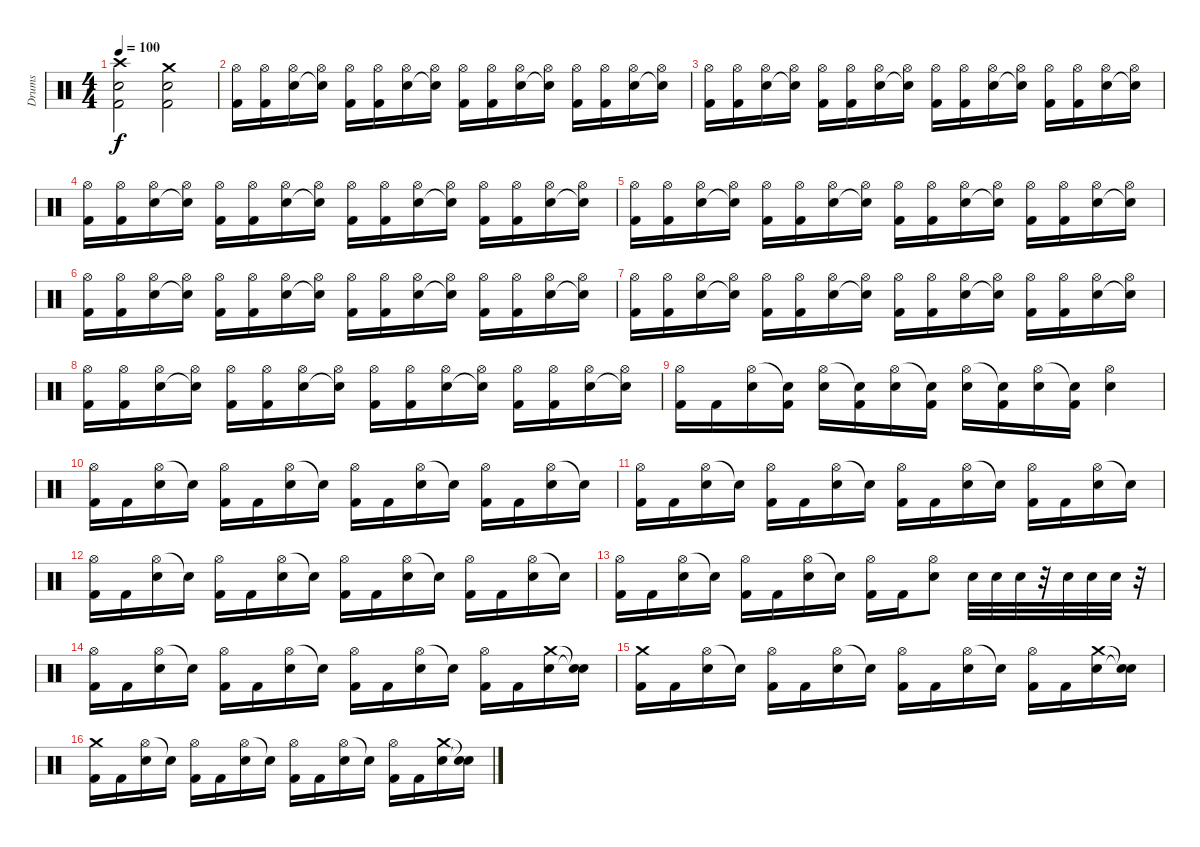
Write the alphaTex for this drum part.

\track ("Drums" "Drums") {instrument percussion}
\staff {score}
\articulation defaults
\ts (4 4)
\tempo 100
\clef neutral
\ks c
("Crash high (hit)" "Electric Snare (hit)" "Kick (hit) 2").2{dy f} ("Crash medium (hit)" "Electric Snare (hit)" "Kick (hit) 2").2 |
("Hi-Hat (open)" "Kick (hit) 2").16 ("Hi-Hat (open)" "Kick (hit) 2").16 ("Hi-Hat (open)" "Electric Snare (hit)").16 ("Hi-Hat (open)" "Snare (hit)"{t}).16 ("Hi-Hat (open)" "Kick (hit) 2").16 ("Hi-Hat (open)" "Kick (hit) 2").16 ("Hi-Hat (open)" "Electric Snare (hit)").16 ("Hi-Hat (open)" "Snare (hit)"{t}).16 ("Hi-Hat (open)" "Kick (hit) 2").16 ("Hi-Hat (open)" "Kick (hit) 2").16 ("Hi-Hat (open)" "Electric Snare (hit)").16 ("Hi-Hat (open)" "Snare (hit)"{t}).16 ("Hi-Hat (open)" "Kick (hit) 2").16 ("Hi-Hat (open)" "Kick (hit) 2").16 ("Hi-Hat (open)" "Electric Snare (hit)").16 ("Hi-Hat (open)" "Electric Snare (hit)"{t}).16 |
("Hi-Hat (open)" "Kick (hit) 2").16 ("Hi-Hat (open)" "Kick (hit) 2").16 ("Hi-Hat (open)" "Electric Snare (hit)").16 ("Hi-Hat (open)" "Snare (hit)"{t}).16 ("Hi-Hat (open)" "Kick (hit) 2").16 ("Hi-Hat (open)" "Kick (hit) 2").16 ("Hi-Hat (open)" "Electric Snare (hit)").16 ("Hi-Hat (open)" "Snare (hit)"{t}).16 ("Hi-Hat (open)" "Kick (hit) 2").16 ("Hi-Hat (open)" "Kick (hit) 2").16 ("Hi-Hat (open)" "Electric Snare (hit)").16 ("Hi-Hat (open)" "Snare (hit)"{t}).16 ("Hi-Hat (open)" "Kick (hit) 2").16 ("Hi-Hat (open)" "Kick (hit) 2").16 ("Hi-Hat (open)" "Electric Snare (hit)").16 ("Hi-Hat (open)" "Electric Snare (hit)"{t}).16 |
("Hi-Hat (open)" "Kick (hit) 2").16 ("Hi-Hat (open)" "Kick (hit) 2").16 ("Hi-Hat (open)" "Electric Snare (hit)").16 ("Hi-Hat (open)" "Snare (hit)"{t}).16 ("Hi-Hat (open)" "Kick (hit) 2").16 ("Hi-Hat (open)" "Kick (hit) 2").16 ("Hi-Hat (open)" "Electric Snare (hit)").16 ("Hi-Hat (open)" "Snare (hit)"{t}).16 ("Hi-Hat (open)" "Kick (hit) 2").16 ("Hi-Hat (open)" "Kick (hit) 2").16 ("Hi-Hat (open)" "Electric Snare (hit)").16 ("Hi-Hat (open)" "Snare (hit)"{t}).16 ("Hi-Hat (open)" "Kick (hit) 2").16 ("Hi-Hat (open)" "Kick (hit) 2").16 ("Hi-Hat (open)" "Electric Snare (hit)").16 ("Hi-Hat (open)" "Electric Snare (hit)"{t}).16 |
("Hi-Hat (open)" "Kick (hit) 2").16 ("Hi-Hat (open)" "Kick (hit) 2").16 ("Hi-Hat (open)" "Electric Snare (hit)").16 ("Hi-Hat (open)" "Snare (hit)"{t}).16 ("Hi-Hat (open)" "Kick (hit) 2").16 ("Hi-Hat (open)" "Kick (hit) 2").16 ("Hi-Hat (open)" "Electric Snare (hit)").16 ("Hi-Hat (open)" "Snare (hit)"{t}).16 ("Hi-Hat (open)" "Kick (hit) 2").16 ("Hi-Hat (open)" "Kick (hit) 2").16 ("Hi-Hat (open)" "Electric Snare (hit)").16 ("Hi-Hat (open)" "Snare (hit)"{t}).16 ("Hi-Hat (open)" "Kick (hit) 2").16 ("Hi-Hat (open)" "Kick (hit) 2").16 ("Hi-Hat (open)" "Electric Snare (hit)").16 ("Hi-Hat (open)" "Electric Snare (hit)"{t}).16 |
("Hi-Hat (open)" "Kick (hit) 2").16 ("Hi-Hat (open)" "Kick (hit) 2").16 ("Hi-Hat (open)" "Electric Snare (hit)").16 ("Hi-Hat (open)" "Snare (hit)"{t}).16 ("Hi-Hat (open)" "Kick (hit) 2").16 ("Hi-Hat (open)" "Kick (hit) 2").16 ("Hi-Hat (open)" "Electric Snare (hit)").16 ("Hi-Hat (open)" "Snare (hit)"{t}).16 ("Hi-Hat (open)" "Kick (hit) 2").16 ("Hi-Hat (open)" "Kick (hit) 2").16 ("Hi-Hat (open)" "Electric Snare (hit)").16 ("Hi-Hat (open)" "Snare (hit)"{t}).16 ("Hi-Hat (open)" "Kick (hit) 2").16 ("Hi-Hat (open)" "Kick (hit) 2").16 ("Hi-Hat (open)" "Electric Snare (hit)").16 ("Hi-Hat (open)" "Electric Snare (hit)"{t}).16 |
("Hi-Hat (open)" "Kick (hit) 2").16 ("Hi-Hat (open)" "Kick (hit) 2").16 ("Hi-Hat (open)" "Electric Snare (hit)").16 ("Hi-Hat (open)" "Snare (hit)"{t}).16 ("Hi-Hat (open)" "Kick (hit) 2").16 ("Hi-Hat (open)" "Kick (hit) 2").16 ("Hi-Hat (open)" "Electric Snare (hit)").16 ("Hi-Hat (open)" "Snare (hit)"{t}).16 ("Hi-Hat (open)" "Kick (hit) 2").16 ("Hi-Hat (open)" "Kick (hit) 2").16 ("Hi-Hat (open)" "Electric Snare (hit)").16 ("Hi-Hat (open)" "Snare (hit)"{t}).16 ("Hi-Hat (open)" "Kick (hit) 2").16 ("Hi-Hat (open)" "Kick (hit) 2").16 ("Hi-Hat (open)" "Electric Snare (hit)").16 ("Hi-Hat (open)" "Electric Snare (hit)"{t}).16 |
("Hi-Hat (open)" "Kick (hit) 2").16 ("Hi-Hat (open)" "Kick (hit) 2").16 ("Hi-Hat (open)" "Electric Snare (hit)").16 ("Hi-Hat (open)" "Snare (hit)"{t}).16 ("Hi-Hat (open)" "Kick (hit) 2").16 ("Hi-Hat (open)" "Kick (hit) 2").16 ("Hi-Hat (open)" "Electric Snare (hit)").16 ("Hi-Hat (open)" "Snare (hit)"{t}).16 ("Hi-Hat (open)" "Kick (hit) 2").16 ("Hi-Hat (open)" "Kick (hit) 2").16 ("Hi-Hat (open)" "Electric Snare (hit)").16 ("Hi-Hat (open)" "Snare (hit)"{t}).16 ("Hi-Hat (open)" "Kick (hit) 2").16 ("Hi-Hat (open)" "Kick (hit) 2").16 ("Hi-Hat (open)" "Electric Snare (hit)").16 ("Hi-Hat (open)" "Electric Snare (hit)"{t}).16 |
("Hi-Hat (open)" "Kick (hit) 2").16 "Kick (hit) 2".16 ("Hi-Hat (open)" "Electric Snare (hit)").16 ("Electric Snare (hit)"{t} "Kick (hit) 2").16 ("Hi-Hat (open)" "Electric Snare (hit)").16 ("Electric Snare (hit)"{t} "Kick (hit) 2").16 ("Hi-Hat (open)" "Electric Snare (hit)").16 ("Electric Snare (hit)"{t} "Kick (hit) 2").16 ("Hi-Hat (open)" "Electric Snare (hit)").16 ("Electric Snare (hit)"{t} "Kick (hit) 2").16 ("Hi-Hat (open)" "Electric Snare (hit)").16 ("Electric Snare (hit)"{t} "Kick (hit) 2").16 ("Hi-Hat (open)" "Electric Snare (hit)").4 |
("Hi-Hat (open)" "Kick (hit) 2").16 "Kick (hit) 2".16 ("Hi-Hat (open)" "Electric Snare (hit)").16 "Electric Snare (hit)"{t}.16 ("Hi-Hat (open)" "Kick (hit) 2").16 "Kick (hit) 2".16 ("Hi-Hat (open)" "Electric Snare (hit)").16 "Electric Snare (hit)"{t}.16 ("Hi-Hat (open)" "Kick (hit) 2").16 "Kick (hit) 2".16 ("Hi-Hat (open)" "Electric Snare (hit)").16 "Snare (hit)"{t}.16 ("Hi-Hat (open)" "Kick (hit) 2").16 "Kick (hit) 2".16 ("Hi-Hat (open)" "Electric Snare (hit)").16 "Electric Snare (hit)"{t}.16 |
("Hi-Hat (open)" "Kick (hit) 2").16 "Kick (hit) 2".16 ("Hi-Hat (open)" "Electric Snare (hit)").16 "Electric Snare (hit)"{t}.16 ("Hi-Hat (open)" "Kick (hit) 2").16 "Kick (hit) 2".16 ("Hi-Hat (open)" "Electric Snare (hit)").16 "Electric Snare (hit)"{t}.16 ("Hi-Hat (open)" "Kick (hit) 2").16 "Kick (hit) 2".16 ("Hi-Hat (open)" "Electric Snare (hit)").16 "Snare (hit)"{t}.16 ("Hi-Hat (open)" "Kick (hit) 2").16 "Kick (hit) 2".16 ("Hi-Hat (open)" "Electric Snare (hit)").16 "Electric Snare (hit)"{t}.16 |
("Hi-Hat (open)" "Kick (hit) 2").16 "Kick (hit) 2".16 ("Hi-Hat (open)" "Electric Snare (hit)").16 "Electric Snare (hit)"{t}.16 ("Hi-Hat (open)" "Kick (hit) 2").16 "Kick (hit) 2".16 ("Hi-Hat (open)" "Electric Snare (hit)").16 "Electric Snare (hit)"{t}.16 ("Hi-Hat (open)" "Kick (hit) 2").16 "Kick (hit) 2".16 ("Hi-Hat (open)" "Electric Snare (hit)").16 "Snare (hit)"{t}.16 ("Hi-Hat (open)" "Kick (hit) 2").16 "Kick (hit) 2".16 ("Hi-Hat (open)" "Electric Snare (hit)").16 "Electric Snare (hit)"{t}.16 |
("Hi-Hat (open)" "Kick (hit) 2").16 "Kick (hit) 2".16 ("Hi-Hat (open)" "Electric Snare (hit)").16 "Electric Snare (hit)"{t}.16 ("Hi-Hat (open)" "Kick (hit) 2").16 "Kick (hit) 2".16 ("Hi-Hat (open)" "Electric Snare (hit)").16 "Electric Snare (hit)"{t}.16 ("Hi-Hat (open)" "Kick (hit) 2").16 "Kick (hit) 2".16 ("Hi-Hat (open)" "Electric Snare (hit)").8 "Electric Snare (hit)".32 "Electric Snare (hit)".32 "Electric Snare (hit)".32 r.32 "Electric Snare (hit)".32 "Electric Snare (hit)".32 "Electric Snare (hit)".32 r.32 |
("Hi-Hat (open)" "Kick (hit) 2").16 "Kick (hit) 2".16 ("Hi-Hat (open)" "Electric Snare (hit)").16 "Electric Snare (hit)"{t}.16 ("Hi-Hat (open)" "Kick (hit) 2").16 "Kick (hit) 2".16 ("Hi-Hat (open)" "Electric Snare (hit)").16 "Electric Snare (hit)"{t}.16 ("Hi-Hat (open)" "Kick (hit) 2").16 "Kick (hit) 2".16 ("Hi-Hat (open)" "Electric Snare (hit)").16 "Snare (hit)"{t}.16 ("Hi-Hat (open)" "Kick (hit) 2").16 "Kick (hit) 2".16 ("Crash medium (hit)" "Electric Snare (hit)").16 ("Snare (hit)"{t} "Electric Snare (hit)"{t}).16 |
("Crash medium (hit)" "Kick (hit) 2").16 "Kick (hit) 2".16 ("Hi-Hat (open)" "Electric Snare (hit)").16 "Electric Snare (hit)"{t}.16 ("Hi-Hat (open)" "Kick (hit) 2").16 "Kick (hit) 2".16 ("Hi-Hat (open)" "Electric Snare (hit)").16 "Electric Snare (hit)"{t}.16 ("Hi-Hat (open)" "Kick (hit) 2").16 "Kick (hit) 2".16 ("Hi-Hat (open)" "Electric Snare (hit)").16 "Snare (hit)"{t}.16 ("Hi-Hat (open)" "Kick (hit) 2").16 "Kick (hit) 2".16 ("Crash medium (hit)" "Electric Snare (hit)").16 ("Snare (hit)"{t} "Electric Snare (hit)"{t}).16 |
("Crash medium (hit)" "Kick (hit) 2").16 "Kick (hit) 2".16 ("Hi-Hat (open)" "Electric Snare (hit)").16 "Electric Snare (hit)"{t}.16 ("Hi-Hat (open)" "Kick (hit) 2").16 "Kick (hit) 2".16 ("Hi-Hat (open)" "Electric Snare (hit)").16 "Electric Snare (hit)"{t}.16 ("Hi-Hat (open)" "Kick (hit) 2").16 "Kick (hit) 2".16 ("Hi-Hat (open)" "Electric Snare (hit)").16 "Snare (hit)"{t}.16 ("Hi-Hat (open)" "Kick (hit) 2").16 "Kick (hit) 2".16 ("Crash medium (hit)" "Electric Snare (hit)").16 ("Snare (hit)"{t} "Electric Snare (hit)"{t}).16
